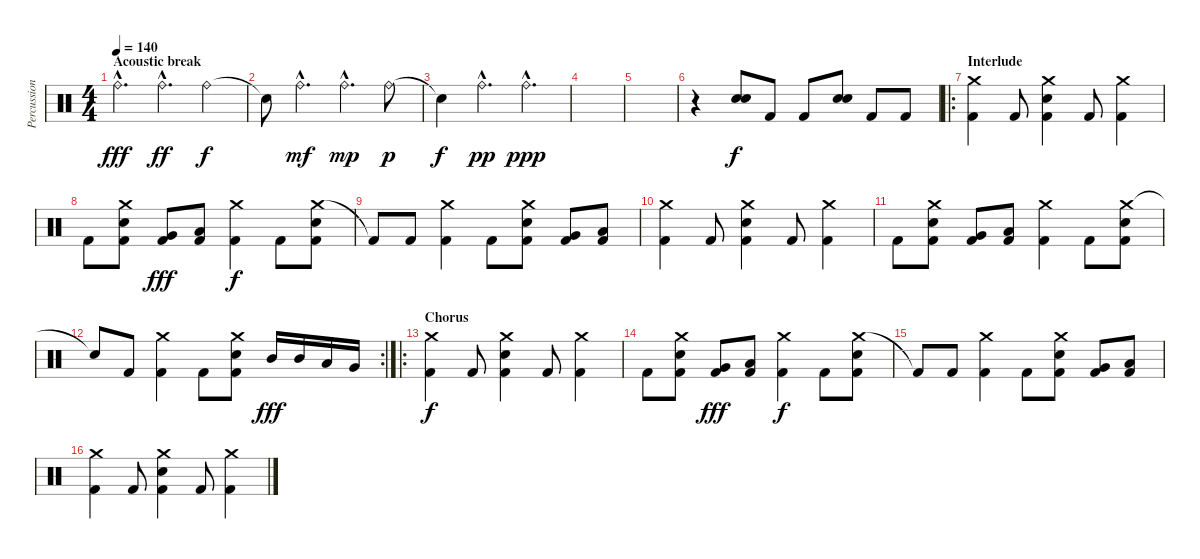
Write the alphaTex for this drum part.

\track ("Percussion" "Percussion") {instrument percussion}
\staff {score}
\articulation defaults
\ts (4 4)
\section ("" "Acoustic break")
\tempo 140
\clef neutral
\ks c "Ride (bell)"{hac}.4{d dy fff} "Ride (bell)"{hac}.4{d dy ff} "Ride (bell)".4{dy f}
|
"Snare (hit)"{t}.8 "Ride (bell)"{hac}.4{d dy mf} "Ride (bell)"{hac}.4{d dy mp} "Ride (bell)".8{dy p} |
"Snare (hit)"{t}.4{dy f} "Ride (bell)"{hac}.4{d dy pp} "Ride (bell)"{hac}.4{d dy ppp} |
|
|
r.4 ("Electric Snare (hit)" "Electric Snare (hit)").8{dy f} "Kick (hit) 2".8 "Kick (hit) 2".8 ("Electric Snare (hit)" "Electric Snare (hit)").8 "Kick (hit) 2".8 "Kick (hit) 2".8 |
\ro
\section ("" "Interlude")
("Crash medium (hit)" "Kick (hit) 2").4 "Kick (hit) 2".8 ("Crash medium (hit)" "Electric Snare (hit)" "Kick (hit) 2").4 "Kick (hit) 2".8 ("Crash medium (hit)" "Kick (hit) 2").4 |
"Kick (hit) 2".8 ("Crash medium (hit)" "Electric Snare (hit)" "Kick (hit) 2").8 ("Very Low Tom (hit)" "Kick (hit) 2").8{dy fff} ("Low Floor Tom (hit)" "Kick (hit) 2").8 ("Crash medium (hit)" "Kick (hit) 2").4{dy f} "Kick (hit) 2".8 ("Crash medium (hit)" "Electric Snare (hit)" "Kick (hit) 2").8 |
"Kick (hit) 2"{t}.8 "Kick (hit) 2".8 ("Crash medium (hit)" "Kick (hit) 2").4 "Kick (hit) 2".8 ("Crash medium (hit)" "Electric Snare (hit)" "Kick (hit) 2").8 ("Very Low Tom (hit)" "Kick (hit) 2").8 ("Low Floor Tom (hit)" "Kick (hit) 2").8 |
("Crash medium (hit)" "Kick (hit) 2").4 "Kick (hit) 2".8 ("Crash medium (hit)" "Electric Snare (hit)" "Kick (hit) 2").4 "Kick (hit) 2".8 ("Crash medium (hit)" "Kick (hit) 2").4 |
"Kick (hit) 2".8 ("Crash medium (hit)" "Electric Snare (hit)" "Kick (hit) 2").8 ("Very Low Tom (hit)" "Kick (hit) 2").8 ("Low Floor Tom (hit)" "Kick (hit) 2").8 ("Crash medium (hit)" "Kick (hit) 2").4 "Kick (hit) 2".8 ("Crash medium (hit)" "Electric Snare (hit)" "Kick (hit) 2").8 |
\rc 2 "Snare (hit)"{t}.8 "Kick (hit) 2".8
("Crash medium (hit)" "Kick (hit) 2").4 "Kick (hit) 2".8 ("Crash medium (hit)" "Electric Snare (hit)" "Kick (hit) 2").8 "Mid Tom (hit)".16{dy fff} "Mid Tom (hit)".16 "Low Tom (hit)".16 "Very Low Tom (hit)".16 |
\ro
\section ("" "Chorus")
("Crash medium (hit)" "Kick (hit) 2").4{dy f} "Kick (hit) 2".8 ("Crash medium (hit)" "Electric Snare (hit)" "Kick (hit) 2").4 "Kick (hit) 2".8 ("Crash medium (hit)" "Kick (hit) 2").4 |
"Kick (hit) 2".8 ("Crash medium (hit)" "Electric Snare (hit)" "Kick (hit) 2").8 ("Very Low Tom (hit)" "Kick (hit) 2").8{dy fff} ("Low Floor Tom (hit)" "Kick (hit) 2").8 ("Crash medium (hit)" "Kick (hit) 2").4{dy f} "Kick (hit) 2".8 ("Crash medium (hit)" "Electric Snare (hit)" "Kick (hit) 2").8 |
"Kick (hit) 2"{t}.8 "Kick (hit) 2".8 ("Crash medium (hit)" "Kick (hit) 2").4 "Kick (hit) 2".8 ("Crash medium (hit)" "Electric Snare (hit)" "Kick (hit) 2").8 ("Very Low Tom (hit)" "Kick (hit) 2").8 ("Low Floor Tom (hit)" "Kick (hit) 2").8 |
("Crash medium (hit)" "Kick (hit) 2").4 "Kick (hit) 2".8 ("Crash medium (hit)" "Electric Snare (hit)" "Kick (hit) 2").4 "Kick (hit) 2".8 ("Crash medium (hit)" "Kick (hit) 2").4
